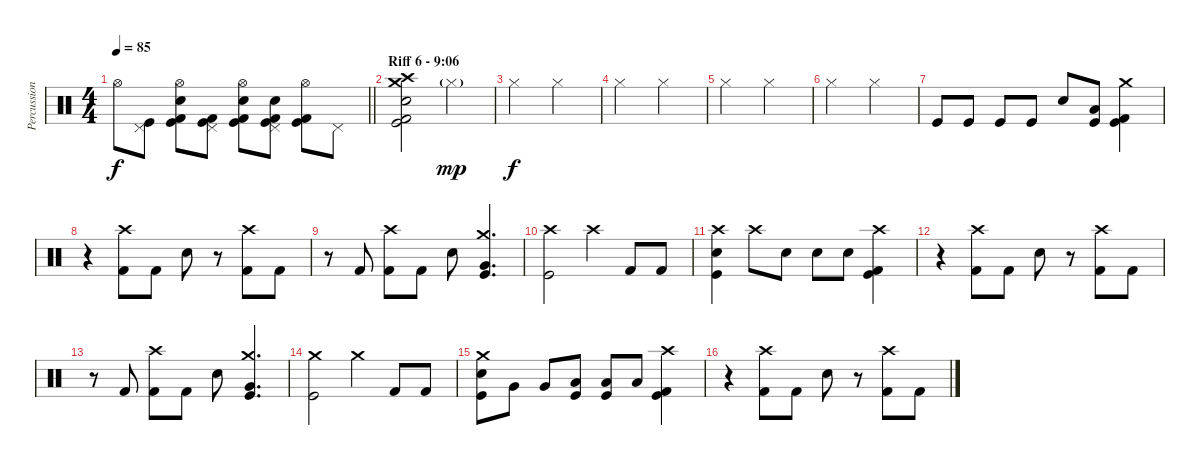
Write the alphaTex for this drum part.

\track ("Percussion" "Percussion") {instrument percussion}
\staff {score}
\articulation defaults
\ts (4 4)
\tempo 85
\clef neutral
\barLineRight lightlight
\ks c "Hi-Hat (open)".8{dy f}
("Kick (hit)" "Pedal Hi-Hat (hit)").8 ("Kick (hit)" "Kick (hit) 2" "Snare (hit) 2" "Hi-Hat (open)").8 ("Kick (hit)" "Kick (hit) 2" "Pedal Hi-Hat (hit)").8 ("Kick (hit)" "Kick (hit) 2" "Snare (hit) 2" "Hi-Hat (open)").8 ("Kick (hit)" "Kick (hit) 2" "Snare (hit) 2" "Pedal Hi-Hat (hit)").8 ("Kick (hit)" "Kick (hit) 2" "Hi-Hat (open)").8 "Pedal Hi-Hat (hit)".8 |
\section ("" "Riff 6 - 9:06")
("Kick (hit)" "Kick (hit) 2" "Snare (hit) 2" "Crash high (hit)" "Crash medium (hit)").2 "Hi-Hat (closed)"{g}.2{dy mp} |
"Hi-Hat (closed)".2{dy f volume 4} "Hi-Hat (closed)".2 |
"Hi-Hat (closed)".2 "Hi-Hat (closed)".2 |
"Hi-Hat (closed)".2 "Hi-Hat (closed)".2 |
"Hi-Hat (closed)".2 "Hi-Hat (closed)".2 |
"Kick (hit)".8{volume 16} "Kick (hit)".8 "Kick (hit)".8 "Kick (hit)".8 "Snare (hit) 2".8 ("Kick (hit)" "Low Tom (hit)").8 ("Kick (hit)" "Kick (hit) 2" "Crash medium (hit)").4 |
r.4 ("Kick (hit) 2" "Crash high (hit)").8 "Kick (hit) 2".8 "Snare (hit) 2".8 r.8 ("Kick (hit) 2" "Crash high (hit)").8 "Kick (hit) 2".8 |
r.8 "Kick (hit) 2".8 ("Kick (hit) 2" "Crash high (hit)").8 "Kick (hit) 2".8 "Snare (hit) 2".8 ("Kick (hit)" "Very Low Tom (hit)" "Crash medium (hit)").4{d} |
("Kick (hit)" "Crash high (hit)").2 "Crash high (hit)".4 "Kick (hit) 2".8 "Kick (hit) 2".8 |
("Kick (hit)" "Snare (hit) 2" "Crash high (hit)").4 "Crash high (hit)".8 "Snare (hit) 2".8 "Snare (hit) 2".8 "Snare (hit) 2".8 ("Kick (hit)" "Kick (hit) 2" "Crash high (hit)").4 |
r.4 ("Kick (hit) 2" "Crash high (hit)").8 "Kick (hit) 2".8 "Snare (hit) 2".8 r.8 ("Kick (hit) 2" "Crash high (hit)").8 "Kick (hit) 2".8 |
r.8 "Kick (hit) 2".8 ("Kick (hit) 2" "Crash high (hit)").8 "Kick (hit) 2".8 "Snare (hit) 2".8 ("Kick (hit)" "Very Low Tom (hit)" "Crash medium (hit)").4{d} |
("Kick (hit)" "Crash medium (hit)").2 "Crash medium (hit)".4 "Kick (hit) 2".8 "Kick (hit) 2".8 |
("Kick (hit)" "Snare (hit) 2" "Crash medium (hit)").8 "Very Low Tom (hit)".8 "Very Low Tom (hit)".8 ("Kick (hit)" "Low Tom (hit)").8 ("Kick (hit)" "Low Tom (hit)").8 "Low Floor Tom (hit)".8 ("Kick (hit)" "Kick (hit) 2" "Crash high (hit)").4 |
r.4 ("Kick (hit) 2" "Crash high (hit)").8 "Kick (hit) 2".8 "Snare (hit) 2".8 r.8 ("Kick (hit) 2" "Crash high (hit)").8 "Kick (hit) 2".8
